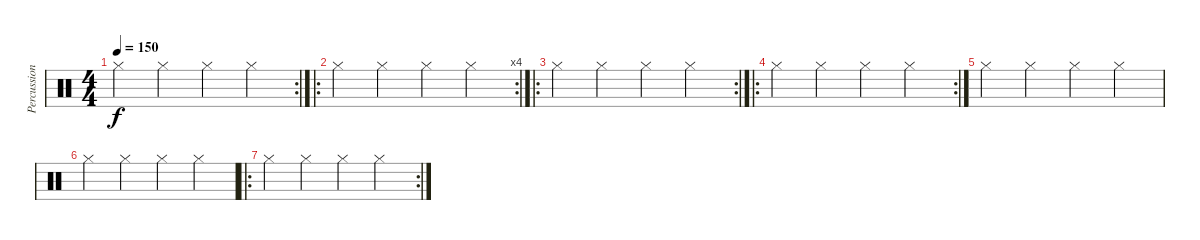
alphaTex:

\track ("Percussioni" "Percussion") {instrument percussion}
\staff {score}
\articulation defaults
\rc 2
\ts (4 4)
\tempo 150
\clef neutral
\ks c "Hi-Hat (closed)".4{dy f} "Hi-Hat (closed)".4 "Hi-Hat (closed)".4 "Hi-Hat (closed)".4
|
\ro
\rc 4 "Hi-Hat (closed)".4 "Hi-Hat (closed)".4 "Hi-Hat (closed)".4 "Hi-Hat (closed)".4
|
\ro
\rc 2 "Hi-Hat (closed)".4 "Hi-Hat (closed)".4 "Hi-Hat (closed)".4 "Hi-Hat (closed)".4
|
\ro
\rc 2 "Hi-Hat (closed)".4 "Hi-Hat (closed)".4 "Hi-Hat (closed)".4 "Hi-Hat (closed)".4
|
"Hi-Hat (closed)".4 "Hi-Hat (closed)".4 "Hi-Hat (closed)".4 "Hi-Hat (closed)".4 |
"Hi-Hat (closed)".4 "Hi-Hat (closed)".4 "Hi-Hat (closed)".4 "Hi-Hat (closed)".4 |
\ro
\rc 2 "Hi-Hat (closed)".4 "Hi-Hat (closed)".4 "Hi-Hat (closed)".4 "Hi-Hat (closed)".4
